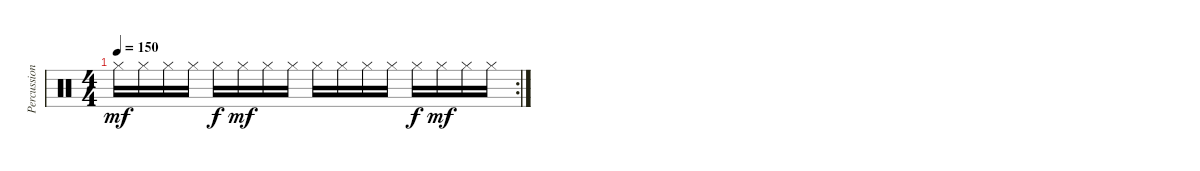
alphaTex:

\track ("Percussion 2" "Percussion") {instrument percussion}
\staff {score}
\articulation defaults
\rc 2
\ts (4 4)
\tempo 150
\clef neutral
\ks c "Hi-Hat (closed)".16{dy mf} "Hi-Hat (closed)".16 "Hi-Hat (closed)".16 "Hi-Hat (closed)".16 "Hi-Hat (closed)".16{dy f} "Hi-Hat (closed)".16{dy mf} "Hi-Hat (closed)".16 "Hi-Hat (closed)".16 "Hi-Hat (closed)".16 "Hi-Hat (closed)".16 "Hi-Hat (closed)".16 "Hi-Hat (closed)".16 "Hi-Hat (closed)".16{dy f} "Hi-Hat (closed)".16{dy mf} "Hi-Hat (closed)".16 "Hi-Hat (closed)".16
